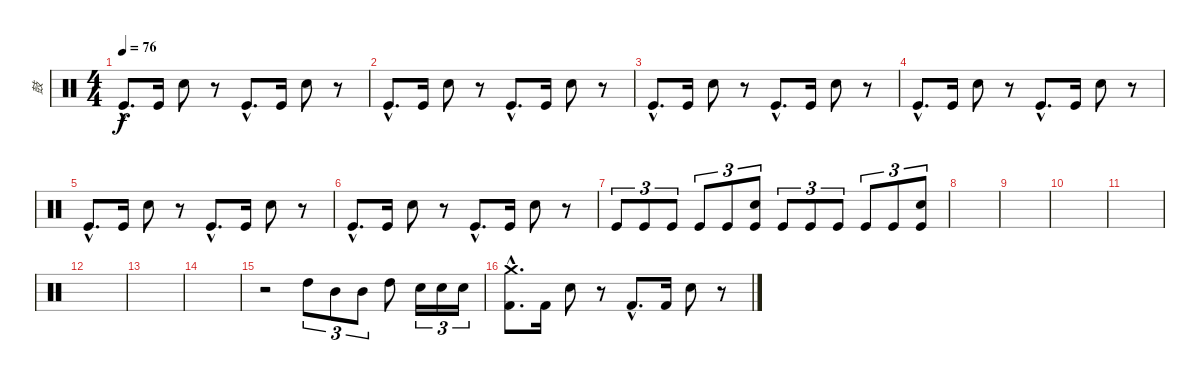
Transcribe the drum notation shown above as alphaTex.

\track ("鼓" "鼓") {instrument percussion}
\staff {score}
\articulation defaults
\ts (4 4)
\tempo 76
\clef neutral
\ks c "Kick (hit)"{hac}.8{d dy f} "Kick (hit)".16 "Electric Snare (hit)".8
r.8 "Kick (hit)"{hac}.8{d} "Kick (hit)".16 "Electric Snare (hit)".8 r.8 |
"Kick (hit)"{hac}.8{d} "Kick (hit)".16 "Electric Snare (hit)".8 r.8 "Kick (hit)"{hac}.8{d} "Kick (hit)".16 "Electric Snare (hit)".8 r.8 |
"Kick (hit)"{hac}.8{d} "Kick (hit)".16 "Electric Snare (hit)".8 r.8 "Kick (hit)"{hac}.8{d} "Kick (hit)".16 "Electric Snare (hit)".8 r.8 |
"Kick (hit)"{hac}.8{d} "Kick (hit)".16 "Electric Snare (hit)".8 r.8 "Kick (hit)"{hac}.8{d} "Kick (hit)".16 "Electric Snare (hit)".8 r.8 |
"Kick (hit)"{hac}.8{d} "Kick (hit)".16 "Electric Snare (hit)".8 r.8 "Kick (hit)"{hac}.8{d} "Kick (hit)".16 "Electric Snare (hit)".8 r.8 |
"Kick (hit)"{hac}.8{d} "Kick (hit)".16 "Electric Snare (hit)".8 r.8 "Kick (hit)"{hac}.8{d} "Kick (hit)".16 "Electric Snare (hit)".8 r.8 |
"Kick (hit)".8{tu (3 2)} "Kick (hit)".8{tu (3 2)} "Kick (hit)".8{tu (3 2)} "Kick (hit)".8{tu (3 2)} "Kick (hit)".8{tu (3 2)} ("Electric Snare (hit)" "Kick (hit)").8{tu (3 2)} "Kick (hit)".8{tu (3 2)} "Kick (hit)".8{tu (3 2)} "Kick (hit)".8{tu (3 2)} "Kick (hit)".8{tu (3 2)} "Kick (hit)".8{tu (3 2)} ("Electric Snare (hit)" "Kick (hit)").8{tu (3 2)} |
|
|
|
|
|
|
|
r.2 "High Tom (hit)".8{tu (3 2)} "Mid Tom (hit)".8{tu (3 2)} "Mid Tom (hit)".8{tu (3 2)} "High Tom (hit)".8 "Electric Snare (hit)".16{tu (3 2)} "Electric Snare (hit)".16{tu (3 2)} "Electric Snare (hit)".16{tu (3 2)} |
("Crash medium (hit)"{hac} "Kick (hit) 2"{hac}).8{d} "Kick (hit) 2".16 "Electric Snare (hit)".8 r.8 "Kick (hit) 2"{hac}.8{d} "Kick (hit) 2".16 "Electric Snare (hit)".8 r.8
